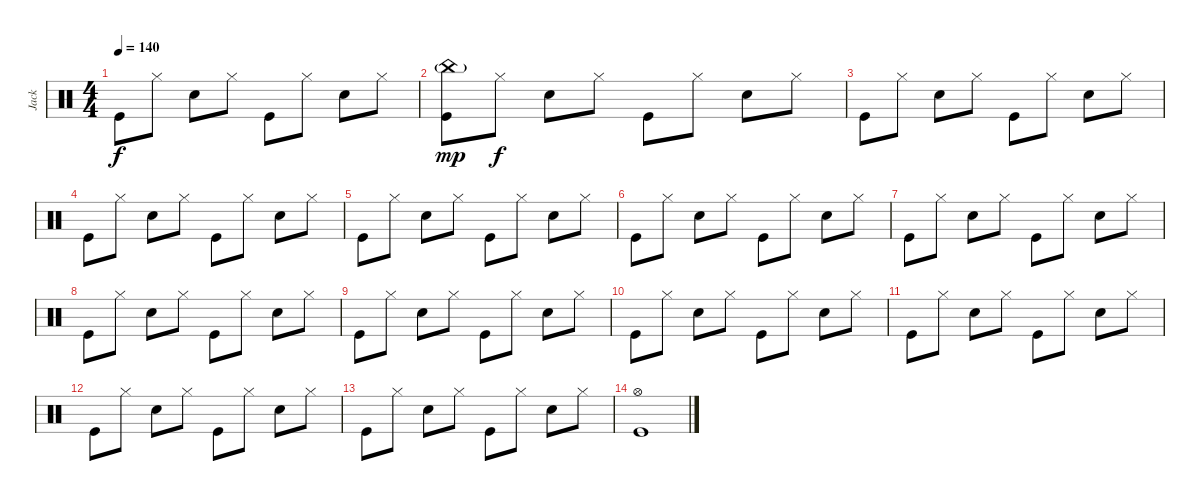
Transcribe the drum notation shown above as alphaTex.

\track ("Jack" "Jack") {instrument percussion}
\staff {score}
\articulation defaults
\ts (4 4)
\tempo 140
\clef neutral
\ks c "Kick (hit)".8{dy f} "Hi-Hat (closed)".8 "Snare (hit) 2".8 "Hi-Hat (closed)".8 "Kick (hit)".8 "Hi-Hat (closed)".8 "Snare (hit) 2".8 "Hi-Hat (closed)".8
|
("China (hit)"{g} "Kick (hit)").8{dy mp} "Hi-Hat (closed)".8{dy f} "Snare (hit) 2".8 "Hi-Hat (closed)".8 "Kick (hit)".8 "Hi-Hat (closed)".8 "Snare (hit) 2".8 "Hi-Hat (closed)".8 |
"Kick (hit)".8 "Hi-Hat (closed)".8 "Snare (hit) 2".8 "Hi-Hat (closed)".8 "Kick (hit)".8 "Hi-Hat (closed)".8 "Snare (hit) 2".8 "Hi-Hat (closed)".8 |
"Kick (hit)".8 "Hi-Hat (closed)".8 "Snare (hit) 2".8 "Hi-Hat (closed)".8 "Kick (hit)".8 "Hi-Hat (closed)".8 "Snare (hit) 2".8 "Hi-Hat (closed)".8 |
"Kick (hit)".8 "Hi-Hat (closed)".8 "Snare (hit) 2".8 "Hi-Hat (closed)".8 "Kick (hit)".8 "Hi-Hat (closed)".8 "Snare (hit) 2".8 "Hi-Hat (closed)".8 |
"Kick (hit)".8 "Hi-Hat (closed)".8 "Snare (hit) 2".8 "Hi-Hat (closed)".8 "Kick (hit)".8 "Hi-Hat (closed)".8 "Snare (hit) 2".8 "Hi-Hat (closed)".8 |
"Kick (hit)".8 "Hi-Hat (closed)".8 "Snare (hit) 2".8 "Hi-Hat (closed)".8 "Kick (hit)".8 "Hi-Hat (closed)".8 "Snare (hit) 2".8 "Hi-Hat (closed)".8 |
"Kick (hit)".8 "Hi-Hat (closed)".8 "Snare (hit) 2".8 "Hi-Hat (closed)".8 "Kick (hit)".8 "Hi-Hat (closed)".8 "Snare (hit) 2".8 "Hi-Hat (closed)".8 |
"Kick (hit)".8 "Hi-Hat (closed)".8 "Snare (hit) 2".8 "Hi-Hat (closed)".8 "Kick (hit)".8 "Hi-Hat (closed)".8 "Snare (hit) 2".8 "Hi-Hat (closed)".8 |
"Kick (hit)".8 "Hi-Hat (closed)".8 "Snare (hit) 2".8 "Hi-Hat (closed)".8 "Kick (hit)".8 "Hi-Hat (closed)".8 "Snare (hit) 2".8 "Hi-Hat (closed)".8 |
"Kick (hit)".8 "Hi-Hat (closed)".8 "Snare (hit) 2".8 "Hi-Hat (closed)".8 "Kick (hit)".8 "Hi-Hat (closed)".8 "Snare (hit) 2".8 "Hi-Hat (closed)".8 |
"Kick (hit)".8 "Hi-Hat (closed)".8 "Snare (hit) 2".8 "Hi-Hat (closed)".8 "Kick (hit)".8 "Hi-Hat (closed)".8 "Snare (hit) 2".8 "Hi-Hat (closed)".8 |
"Kick (hit)".8 "Hi-Hat (closed)".8 "Snare (hit) 2".8 "Hi-Hat (closed)".8 "Kick (hit)".8 "Hi-Hat (closed)".8 "Snare (hit) 2".8 "Hi-Hat (closed)".8 |
("Hi-Hat (open)" "Kick (hit)").1
